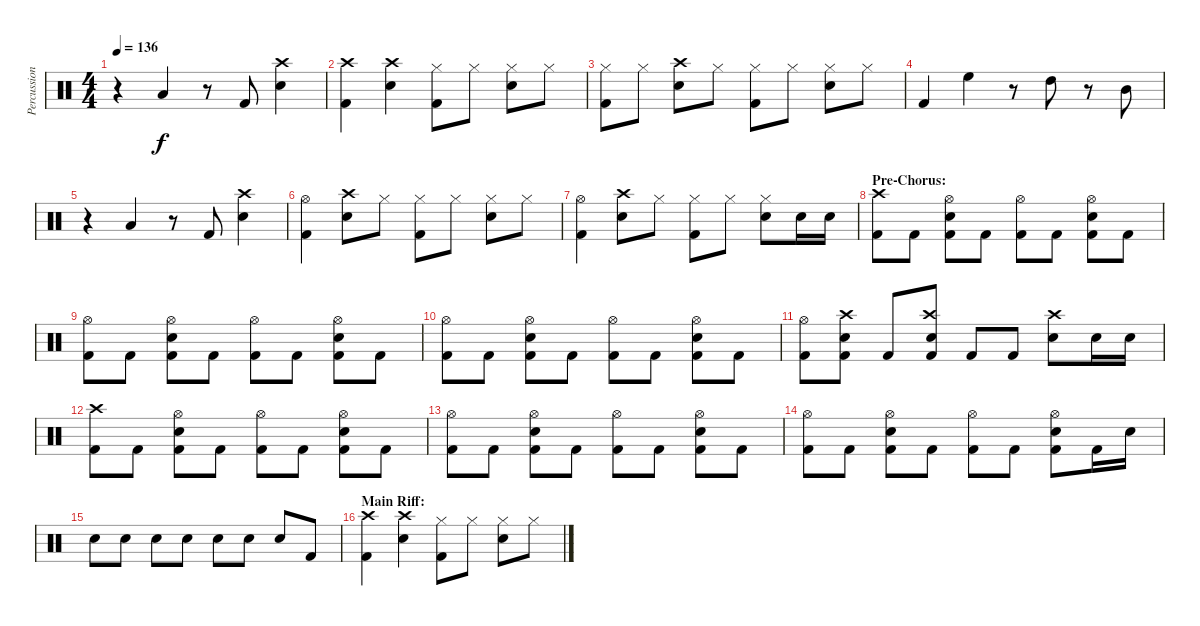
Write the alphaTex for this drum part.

\track ("Percussion" "Percussion") {instrument percussion}
\staff {score}
\articulation defaults
\ts (4 4)
\tempo 136
\clef neutral
\ks c
r.4{dy f} "Low Tom (hit)".4 r.8 "Kick (hit) 2".8 ("Crash high (hit)" "Electric Snare (hit)").4 |
("Crash high (hit)" "Kick (hit) 2").4 ("Crash high (hit)" "Electric Snare (hit)").4 ("Hi-Hat (closed)" "Kick (hit) 2").8 "Hi-Hat (closed)".8 ("Hi-Hat (closed)" "Electric Snare (hit)").8 "Hi-Hat (closed)".8 |
("Hi-Hat (closed)" "Kick (hit) 2").8 "Hi-Hat (closed)".8 ("Crash high (hit)" "Electric Snare (hit)").8 "Hi-Hat (closed)".8 ("Hi-Hat (closed)" "Kick (hit) 2").8 "Hi-Hat (closed)".8 ("Hi-Hat (closed)" "Electric Snare (hit)").8 "Hi-Hat (closed)".8 |
"Kick (hit) 2".4 "High Floor Tom (hit)".4 r.8 "High Tom (hit)".8 r.8 "Mid Tom (hit)".8 |
r.4 "Low Tom (hit)".4 r.8 "Kick (hit) 2".8 ("Crash high (hit)" "Electric Snare (hit)").4 |
("Hi-Hat (open)" "Kick (hit) 2").4 ("Crash high (hit)" "Electric Snare (hit)").8 "Hi-Hat (closed)".8 ("Hi-Hat (closed)" "Kick (hit) 2").8 "Hi-Hat (closed)".8 ("Hi-Hat (closed)" "Electric Snare (hit)").8 "Hi-Hat (closed)".8 |
("Hi-Hat (open)" "Kick (hit) 2").4 ("Crash high (hit)" "Electric Snare (hit)").8 "Hi-Hat (closed)".8 ("Hi-Hat (closed)" "Kick (hit) 2").8 "Hi-Hat (closed)".8 ("Hi-Hat (closed)" "Electric Snare (hit)").8 "Electric Snare (hit)".16 "Electric Snare (hit)".16 |
\section ("" "Pre-Chorus:")
("Crash high (hit)" "Kick (hit) 2").8 "Kick (hit) 2".8 ("Hi-Hat (open)" "Electric Snare (hit)" "Kick (hit) 2").8 "Kick (hit) 2".8 ("Hi-Hat (open)" "Kick (hit) 2").8 "Kick (hit) 2".8 ("Hi-Hat (open)" "Electric Snare (hit)" "Kick (hit) 2").8 "Kick (hit) 2".8 |
("Hi-Hat (open)" "Kick (hit) 2").8 "Kick (hit) 2".8 ("Hi-Hat (open)" "Electric Snare (hit)" "Kick (hit) 2").8 "Kick (hit) 2".8 ("Hi-Hat (open)" "Kick (hit) 2").8 "Kick (hit) 2".8 ("Hi-Hat (open)" "Electric Snare (hit)" "Kick (hit) 2").8 "Kick (hit) 2".8 |
("Hi-Hat (open)" "Kick (hit) 2").8 "Kick (hit) 2".8 ("Hi-Hat (open)" "Electric Snare (hit)" "Kick (hit) 2").8 "Kick (hit) 2".8 ("Hi-Hat (open)" "Kick (hit) 2").8 "Kick (hit) 2".8 ("Hi-Hat (open)" "Electric Snare (hit)" "Kick (hit) 2").8 "Kick (hit) 2".8 |
("Hi-Hat (open)" "Kick (hit) 2").8 ("Crash high (hit)" "Electric Snare (hit)" "Kick (hit) 2").8 "Kick (hit) 2".8 ("Crash high (hit)" "Electric Snare (hit)" "Kick (hit) 2").8 "Kick (hit) 2".8 "Kick (hit) 2".8 ("Crash high (hit)" "Electric Snare (hit)").8 "Electric Snare (hit)".16 "Electric Snare (hit)".16 |
("Crash high (hit)" "Kick (hit) 2").8 "Kick (hit) 2".8 ("Hi-Hat (open)" "Electric Snare (hit)" "Kick (hit) 2").8 "Kick (hit) 2".8 ("Hi-Hat (open)" "Kick (hit) 2").8 "Kick (hit) 2".8 ("Hi-Hat (open)" "Electric Snare (hit)" "Kick (hit) 2").8 "Kick (hit) 2".8 |
("Hi-Hat (open)" "Kick (hit) 2").8 "Kick (hit) 2".8 ("Hi-Hat (open)" "Electric Snare (hit)" "Kick (hit) 2").8 "Kick (hit) 2".8 ("Hi-Hat (open)" "Kick (hit) 2").8 "Kick (hit) 2".8 ("Hi-Hat (open)" "Electric Snare (hit)" "Kick (hit) 2").8 "Kick (hit) 2".8 |
("Hi-Hat (open)" "Kick (hit) 2").8 "Kick (hit) 2".8 ("Hi-Hat (open)" "Electric Snare (hit)" "Kick (hit) 2").8 "Kick (hit) 2".8 ("Hi-Hat (open)" "Kick (hit) 2").8 "Kick (hit) 2".8 ("Hi-Hat (open)" "Electric Snare (hit)" "Kick (hit) 2").8 "Kick (hit) 2".16 "Electric Snare (hit)".16 |
"Electric Snare (hit)".8 "Electric Snare (hit)".8 "Electric Snare (hit)".8 "Electric Snare (hit)".8 "Electric Snare (hit)".8 "Electric Snare (hit)".8 "Electric Snare (hit)".8 "Kick (hit) 2".8 |
\section ("" "Main Riff:")
("Crash high (hit)" "Kick (hit) 2").4 ("Crash high (hit)" "Electric Snare (hit)").4 ("Hi-Hat (closed)" "Kick (hit) 2").8 "Hi-Hat (closed)".8 ("Hi-Hat (closed)" "Electric Snare (hit)").8 "Hi-Hat (closed)".8
